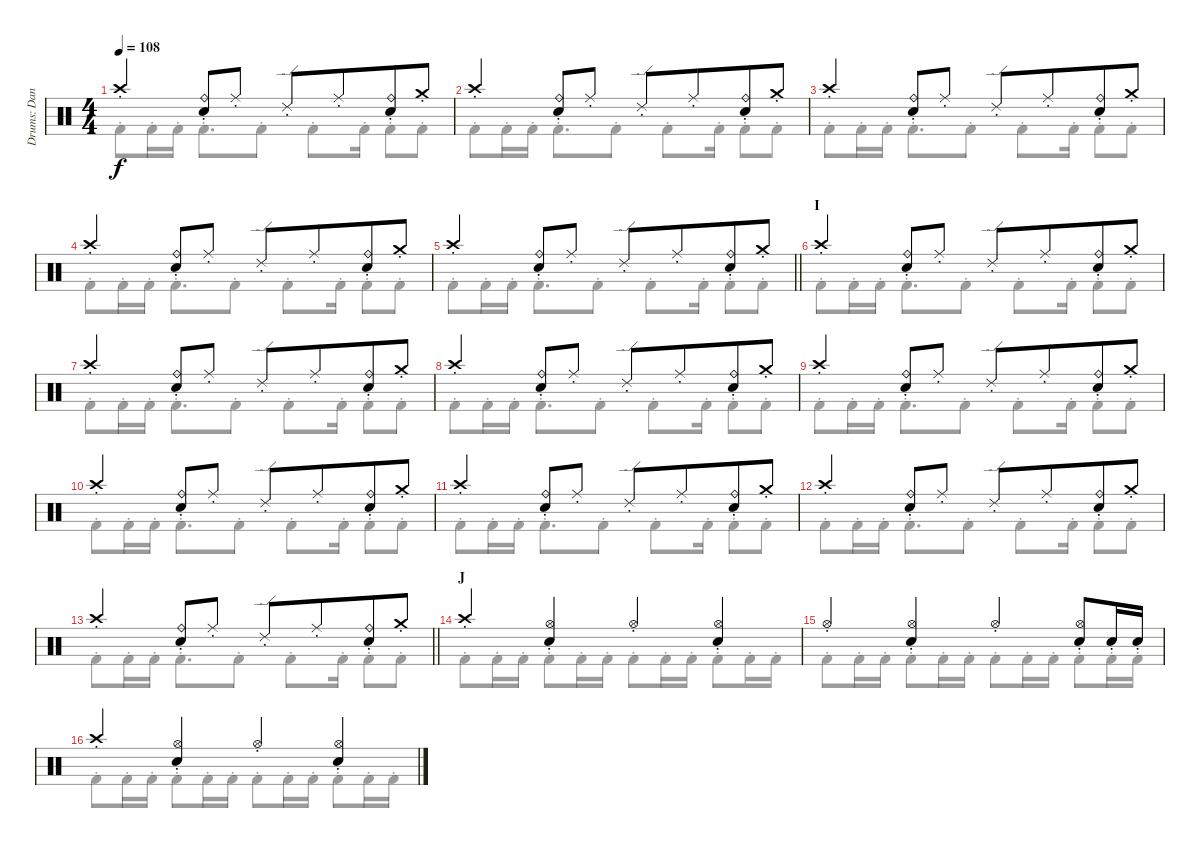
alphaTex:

\track ("Drums: Dana" "Drums: Dan") {instrument percussion}
\staff {score}
\articulation defaults
\voice
\ts (4 4)
\tempo 108
\clef neutral
\ks c "Crash high (hit)"{st}.4{dy f}
("Ride (bell)"{st} "Snare (hit) 2"{st}).8 "Ride (middle)"{st}.8 "Ride (edge) 2"{st}.8 "Ride (middle)"{st}.8{beam merge} ("Ride (bell)"{st} "Snare (hit) 2"{st}).8 "Crash medium (hit)"{st}.8 |
"Crash high (hit)"{st}.4 ("Ride (bell)"{st} "Snare (hit) 2"{st}).8 "Ride (middle)"{st}.8 "Ride (edge) 2"{st}.8 "Ride (middle)"{st}.8{beam merge} ("Ride (bell)"{st} "Snare (hit) 2"{st}).8 "Crash medium (hit)"{st}.8 |
"Crash high (hit)"{st}.4 ("Ride (bell)"{st} "Snare (hit) 2"{st}).8 "Ride (middle)"{st}.8 "Ride (edge) 2"{st}.8 "Ride (middle)"{st}.8{beam merge} ("Ride (bell)"{st} "Snare (hit) 2"{st}).8 "Crash medium (hit)"{st}.8 |
"Crash high (hit)"{st}.4 ("Ride (bell)"{st} "Snare (hit) 2"{st}).8 "Ride (middle)"{st}.8 "Ride (edge) 2"{st}.8 "Ride (middle)"{st}.8{beam merge} ("Ride (bell)"{st} "Snare (hit) 2"{st}).8 "Crash medium (hit)"{st}.8 |
\barLineRight lightlight "Crash high (hit)"{st}.4
("Ride (bell)"{st} "Snare (hit) 2"{st}).8 "Ride (middle)"{st}.8 "Ride (edge) 2"{st}.8 "Ride (middle)"{st}.8{beam merge} ("Ride (bell)"{st} "Snare (hit) 2"{st}).8 "Crash medium (hit)"{st}.8 |
\section ("" "I")
"Crash high (hit)"{st}.4 ("Ride (bell)"{st} "Snare (hit) 2"{st}).8 "Ride (middle)"{st}.8 "Ride (edge) 2"{st}.8 "Ride (middle)"{st}.8{beam merge} ("Ride (bell)"{st} "Snare (hit) 2"{st}).8 "Crash medium (hit)"{st}.8 |
"Crash high (hit)"{st}.4 ("Ride (bell)"{st} "Snare (hit) 2"{st}).8 "Ride (middle)"{st}.8 "Ride (edge) 2"{st}.8 "Ride (middle)"{st}.8{beam merge} ("Ride (bell)"{st} "Snare (hit) 2"{st}).8 "Crash medium (hit)"{st}.8 |
"Crash high (hit)"{st}.4 ("Ride (bell)"{st} "Snare (hit) 2"{st}).8 "Ride (middle)"{st}.8 "Ride (edge) 2"{st}.8 "Ride (middle)"{st}.8{beam merge} ("Ride (bell)"{st} "Snare (hit) 2"{st}).8 "Crash medium (hit)"{st}.8 |
"Crash high (hit)"{st}.4 ("Ride (bell)"{st} "Snare (hit) 2"{st}).8 "Ride (middle)"{st}.8 "Ride (edge) 2"{st}.8 "Ride (middle)"{st}.8{beam merge} ("Ride (bell)"{st} "Snare (hit) 2"{st}).8 "Crash medium (hit)"{st}.8 |
"Crash high (hit)"{st}.4 ("Ride (bell)"{st} "Snare (hit) 2"{st}).8 "Ride (middle)"{st}.8 "Ride (edge) 2"{st}.8 "Ride (middle)"{st}.8{beam merge} ("Ride (bell)"{st} "Snare (hit) 2"{st}).8 "Crash medium (hit)"{st}.8 |
"Crash high (hit)"{st}.4 ("Ride (bell)"{st} "Snare (hit) 2"{st}).8 "Ride (middle)"{st}.8 "Ride (edge) 2"{st}.8 "Ride (middle)"{st}.8{beam merge} ("Ride (bell)"{st} "Snare (hit) 2"{st}).8 "Crash medium (hit)"{st}.8 |
"Crash high (hit)"{st}.4 ("Ride (bell)"{st} "Snare (hit) 2"{st}).8 "Ride (middle)"{st}.8 "Ride (edge) 2"{st}.8 "Ride (middle)"{st}.8{beam merge} ("Ride (bell)"{st} "Snare (hit) 2"{st}).8 "Crash medium (hit)"{st}.8 |
\barLineRight lightlight "Crash high (hit)"{st}.4
("Ride (bell)"{st} "Snare (hit) 2"{st}).8 "Ride (middle)"{st}.8 "Ride (edge) 2"{st}.8 "Ride (middle)"{st}.8{beam merge} ("Ride (bell)"{st} "Snare (hit) 2"{st}).8 "Crash medium (hit)"{st}.8 |
\section ("" "J")
"Crash high (hit)"{st}.4 ("Hi-Hat (open)"{st} "Snare (hit) 2"{st}).4 "Hi-Hat (open)"{st}.4 ("Hi-Hat (open)"{st} "Snare (hit) 2"{st}).4 |
"Hi-Hat (open)"{st}.4 ("Hi-Hat (open)"{st} "Snare (hit) 2"{st}).4 "Hi-Hat (open)"{st}.4 ("Hi-Hat (open)"{st} "Snare (hit) 2"{st}).8 "Electric Snare (hit)"{st}.16 "Electric Snare (hit)"{st}.16 |
"Crash high (hit)"{st}.4 ("Hi-Hat (open)"{st} "Snare (hit) 2"{st}).4 "Hi-Hat (open)"{st}.4 ("Hi-Hat (open)"{st} "Snare (hit) 2"{st}).4
\voice
\clef neutral
\ottava regular
\simile none
\ks c "Kick (hit) 2"{st}.8{dy f} "Kick (hit) 2"{st}.16 "Kick (hit) 2"{st}.16 "Kick (hit) 2"{st}.8{d} "Kick (hit) 2"{st}.8 "Kick (hit) 2"{st}.8 "Kick (hit) 2"{st}.16 "Kick (hit) 2"{st}.8 "Kick (hit) 2"{st}.8
|
"Kick (hit) 2"{st}.8 "Kick (hit) 2"{st}.16 "Kick (hit) 2"{st}.16 "Kick (hit) 2"{st}.8{d} "Kick (hit) 2"{st}.8 "Kick (hit) 2"{st}.8 "Kick (hit) 2"{st}.16 "Kick (hit) 2"{st}.8 "Kick (hit) 2"{st}.8 |
"Kick (hit) 2"{st}.8 "Kick (hit) 2"{st}.16 "Kick (hit) 2"{st}.16 "Kick (hit) 2"{st}.8{d} "Kick (hit) 2"{st}.8 "Kick (hit) 2"{st}.8 "Kick (hit) 2"{st}.16 "Kick (hit) 2"{st}.8 "Kick (hit) 2"{st}.8 |
"Kick (hit) 2"{st}.8 "Kick (hit) 2"{st}.16 "Kick (hit) 2"{st}.16 "Kick (hit) 2"{st}.8{d} "Kick (hit) 2"{st}.8 "Kick (hit) 2"{st}.8 "Kick (hit) 2"{st}.16 "Kick (hit) 2"{st}.8 "Kick (hit) 2"{st}.8 |
\barLineRight lightlight "Kick (hit) 2"{st}.8 "Kick (hit) 2"{st}.16 "Kick (hit) 2"{st}.16 "Kick (hit) 2"{st}.8{d} "Kick (hit) 2"{st}.8 "Kick (hit) 2"{st}.8 "Kick (hit) 2"{st}.16 "Kick (hit) 2"{st}.8 "Kick (hit) 2"{st}.8
|
"Kick (hit) 2"{st}.8 "Kick (hit) 2"{st}.16 "Kick (hit) 2"{st}.16 "Kick (hit) 2"{st}.8{d} "Kick (hit) 2"{st}.8 "Kick (hit) 2"{st}.8 "Kick (hit) 2"{st}.16 "Kick (hit) 2"{st}.8 "Kick (hit) 2"{st}.8 |
"Kick (hit) 2"{st}.8 "Kick (hit) 2"{st}.16 "Kick (hit) 2"{st}.16 "Kick (hit) 2"{st}.8{d} "Kick (hit) 2"{st}.8 "Kick (hit) 2"{st}.8 "Kick (hit) 2"{st}.16 "Kick (hit) 2"{st}.8 "Kick (hit) 2"{st}.8 |
"Kick (hit) 2"{st}.8 "Kick (hit) 2"{st}.16 "Kick (hit) 2"{st}.16 "Kick (hit) 2"{st}.8{d} "Kick (hit) 2"{st}.8 "Kick (hit) 2"{st}.8 "Kick (hit) 2"{st}.16 "Kick (hit) 2"{st}.8 "Kick (hit) 2"{st}.8 |
"Kick (hit) 2"{st}.8 "Kick (hit) 2"{st}.16 "Kick (hit) 2"{st}.16 "Kick (hit) 2"{st}.8{d} "Kick (hit) 2"{st}.8 "Kick (hit) 2"{st}.8 "Kick (hit) 2"{st}.16 "Kick (hit) 2"{st}.8 "Kick (hit) 2"{st}.8 |
"Kick (hit) 2"{st}.8 "Kick (hit) 2"{st}.16 "Kick (hit) 2"{st}.16 "Kick (hit) 2"{st}.8{d} "Kick (hit) 2"{st}.8 "Kick (hit) 2"{st}.8 "Kick (hit) 2"{st}.16 "Kick (hit) 2"{st}.8 "Kick (hit) 2"{st}.8 |
"Kick (hit) 2"{st}.8 "Kick (hit) 2"{st}.16 "Kick (hit) 2"{st}.16 "Kick (hit) 2"{st}.8{d} "Kick (hit) 2"{st}.8 "Kick (hit) 2"{st}.8 "Kick (hit) 2"{st}.16 "Kick (hit) 2"{st}.8 "Kick (hit) 2"{st}.8 |
"Kick (hit) 2"{st}.8 "Kick (hit) 2"{st}.16 "Kick (hit) 2"{st}.16 "Kick (hit) 2"{st}.8{d} "Kick (hit) 2"{st}.8 "Kick (hit) 2"{st}.8 "Kick (hit) 2"{st}.16 "Kick (hit) 2"{st}.8 "Kick (hit) 2"{st}.8 |
\barLineRight lightlight "Kick (hit) 2"{st}.8 "Kick (hit) 2"{st}.16 "Kick (hit) 2"{st}.16 "Kick (hit) 2"{st}.8{d} "Kick (hit) 2"{st}.8 "Kick (hit) 2"{st}.8 "Kick (hit) 2"{st}.16 "Kick (hit) 2"{st}.8 "Kick (hit) 2"{st}.8
|
"Kick (hit) 2"{st}.8 "Kick (hit) 2"{st}.16 "Kick (hit) 2"{st}.16 "Kick (hit) 2"{st}.8 "Kick (hit) 2"{st}.16 "Kick (hit) 2"{st}.16 "Kick (hit) 2"{st}.8 "Kick (hit) 2"{st}.16 "Kick (hit) 2"{st}.16 "Kick (hit) 2"{st}.8 "Kick (hit) 2"{st}.16 "Kick (hit) 2"{st}.16 |
"Kick (hit) 2"{st}.8 "Kick (hit) 2"{st}.16 "Kick (hit) 2"{st}.16 "Kick (hit) 2"{st}.8 "Kick (hit) 2"{st}.16 "Kick (hit) 2"{st}.16 "Kick (hit) 2"{st}.8 "Kick (hit) 2"{st}.16 "Kick (hit) 2"{st}.16 "Kick (hit) 2"{st}.8 "Kick (hit) 2"{st}.16 "Kick (hit) 2"{st}.16 |
"Kick (hit) 2"{st}.8 "Kick (hit) 2"{st}.16 "Kick (hit) 2"{st}.16 "Kick (hit) 2"{st}.8 "Kick (hit) 2"{st}.16 "Kick (hit) 2"{st}.16 "Kick (hit) 2"{st}.8 "Kick (hit) 2"{st}.16 "Kick (hit) 2"{st}.16 "Kick (hit) 2"{st}.8 "Kick (hit) 2"{st}.16 "Kick (hit) 2"{st}.16
